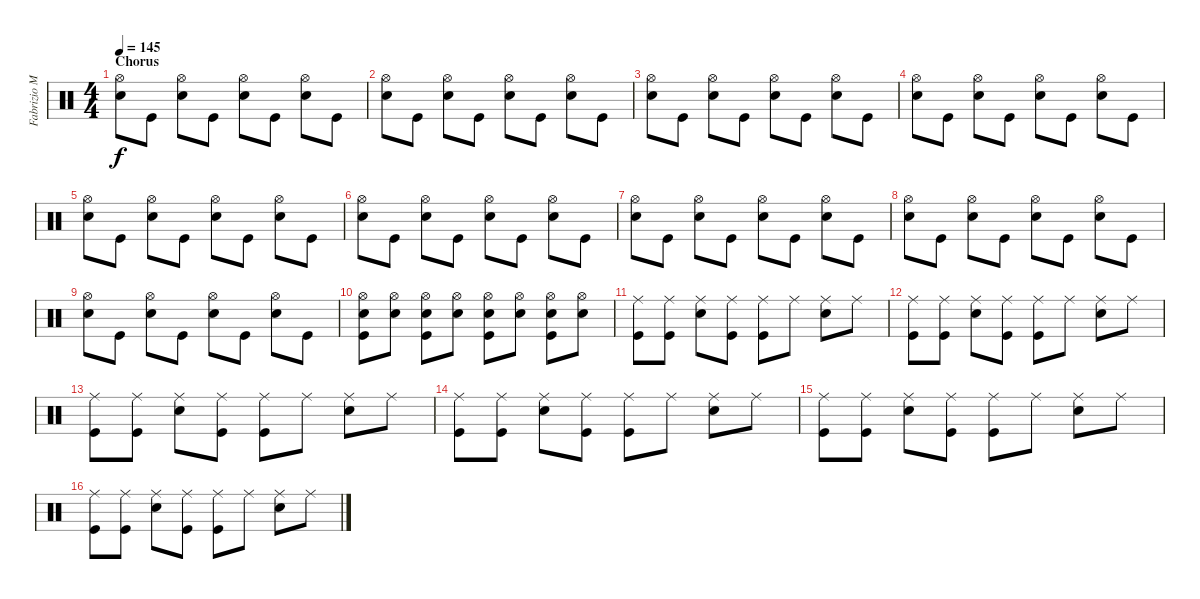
\track ("Fabrizio Moretti" "Fabrizio M") {instrument percussion}
\staff {score}
\articulation defaults
\ts (4 4)
\section ("" "Chorus")
\tempo 145
\clef neutral
\ks c
("Hi-Hat (open)" "Snare (hit) 2").8{dy f} "Kick (hit)".8 ("Hi-Hat (open)" "Snare (hit) 2").8 "Kick (hit)".8 ("Hi-Hat (open)" "Snare (hit) 2").8 "Kick (hit)".8 ("Hi-Hat (open)" "Snare (hit) 2").8 "Kick (hit)".8 |
("Hi-Hat (open)" "Snare (hit) 2").8 "Kick (hit)".8 ("Hi-Hat (open)" "Snare (hit) 2").8 "Kick (hit)".8 ("Hi-Hat (open)" "Snare (hit) 2").8 "Kick (hit)".8 ("Hi-Hat (open)" "Snare (hit) 2").8 "Kick (hit)".8 |
("Hi-Hat (open)" "Snare (hit) 2").8 "Kick (hit)".8 ("Hi-Hat (open)" "Snare (hit) 2").8 "Kick (hit)".8 ("Hi-Hat (open)" "Snare (hit) 2").8 "Kick (hit)".8 ("Hi-Hat (open)" "Snare (hit) 2").8 "Kick (hit)".8 |
("Hi-Hat (open)" "Snare (hit) 2").8 "Kick (hit)".8 ("Hi-Hat (open)" "Snare (hit) 2").8 "Kick (hit)".8 ("Hi-Hat (open)" "Snare (hit) 2").8 "Kick (hit)".8 ("Hi-Hat (open)" "Snare (hit) 2").8 "Kick (hit)".8 |
("Hi-Hat (open)" "Snare (hit) 2").8 "Kick (hit)".8 ("Hi-Hat (open)" "Snare (hit) 2").8 "Kick (hit)".8 ("Hi-Hat (open)" "Snare (hit) 2").8 "Kick (hit)".8 ("Hi-Hat (open)" "Snare (hit) 2").8 "Kick (hit)".8 |
("Hi-Hat (open)" "Snare (hit) 2").8 "Kick (hit)".8 ("Hi-Hat (open)" "Snare (hit) 2").8 "Kick (hit)".8 ("Hi-Hat (open)" "Snare (hit) 2").8 "Kick (hit)".8 ("Hi-Hat (open)" "Snare (hit) 2").8 "Kick (hit)".8 |
("Hi-Hat (open)" "Snare (hit) 2").8 "Kick (hit)".8 ("Hi-Hat (open)" "Snare (hit) 2").8 "Kick (hit)".8 ("Hi-Hat (open)" "Snare (hit) 2").8 "Kick (hit)".8 ("Hi-Hat (open)" "Snare (hit) 2").8 "Kick (hit)".8 |
("Hi-Hat (open)" "Snare (hit) 2").8 "Kick (hit)".8 ("Hi-Hat (open)" "Snare (hit) 2").8 "Kick (hit)".8 ("Hi-Hat (open)" "Snare (hit) 2").8 "Kick (hit)".8 ("Hi-Hat (open)" "Snare (hit) 2").8 "Kick (hit)".8 |
("Hi-Hat (open)" "Snare (hit) 2").8 "Kick (hit)".8 ("Hi-Hat (open)" "Snare (hit) 2").8 "Kick (hit)".8 ("Hi-Hat (open)" "Snare (hit) 2").8 "Kick (hit)".8 ("Hi-Hat (open)" "Snare (hit) 2").8 "Kick (hit)".8 |
("Hi-Hat (open)" "Snare (hit) 2" "Kick (hit)").8 ("Hi-Hat (open)" "Snare (hit) 2").8 ("Hi-Hat (open)" "Snare (hit) 2" "Kick (hit)").8 ("Hi-Hat (open)" "Snare (hit) 2").8 ("Hi-Hat (open)" "Snare (hit) 2" "Kick (hit)").8 ("Hi-Hat (open)" "Snare (hit) 2").8 ("Hi-Hat (open)" "Snare (hit) 2" "Kick (hit)").8 ("Hi-Hat (open)" "Snare (hit) 2").8 |
("Ride (middle)" "Kick (hit)").8 ("Ride (middle)" "Kick (hit)").8 ("Ride (middle)" "Snare (hit) 2").8 ("Ride (middle)" "Kick (hit)").8 ("Ride (middle)" "Kick (hit)").8 "Ride (middle)".8 ("Ride (middle)" "Snare (hit) 2").8 "Ride (middle)".8 |
("Ride (middle)" "Kick (hit)").8 ("Ride (middle)" "Kick (hit)").8 ("Ride (middle)" "Snare (hit) 2").8 ("Ride (middle)" "Kick (hit)").8 ("Ride (middle)" "Kick (hit)").8 "Ride (middle)".8 ("Ride (middle)" "Snare (hit) 2").8 "Ride (middle)".8 |
("Ride (middle)" "Kick (hit)").8 ("Ride (middle)" "Kick (hit)").8 ("Ride (middle)" "Snare (hit) 2").8 ("Ride (middle)" "Kick (hit)").8 ("Ride (middle)" "Kick (hit)").8 "Ride (middle)".8 ("Ride (middle)" "Snare (hit) 2").8 "Ride (middle)".8 |
("Ride (middle)" "Kick (hit)").8 ("Ride (middle)" "Kick (hit)").8 ("Ride (middle)" "Snare (hit) 2").8 ("Ride (middle)" "Kick (hit)").8 ("Ride (middle)" "Kick (hit)").8 "Ride (middle)".8 ("Ride (middle)" "Snare (hit) 2").8 "Ride (middle)".8 |
("Ride (middle)" "Kick (hit)").8 ("Ride (middle)" "Kick (hit)").8 ("Ride (middle)" "Snare (hit) 2").8 ("Ride (middle)" "Kick (hit)").8 ("Ride (middle)" "Kick (hit)").8 "Ride (middle)".8 ("Ride (middle)" "Snare (hit) 2").8 "Ride (middle)".8 |
("Ride (middle)" "Kick (hit)").8 ("Ride (middle)" "Kick (hit)").8 ("Ride (middle)" "Snare (hit) 2").8 ("Ride (middle)" "Kick (hit)").8 ("Ride (middle)" "Kick (hit)").8 "Ride (middle)".8 ("Ride (middle)" "Snare (hit) 2").8 "Ride (middle)".8
